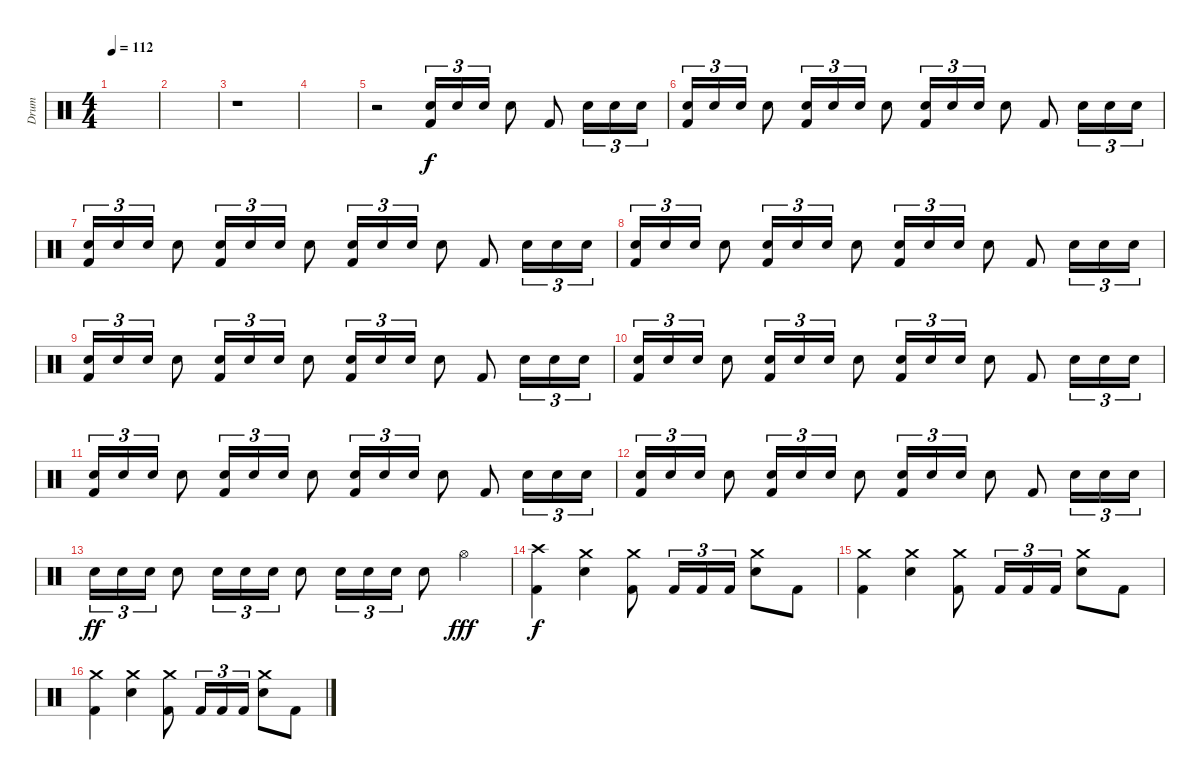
\track ("Drum" "Drum") {instrument percussion}
\staff {score}
\articulation defaults
\ts (4 4)
\tempo 112
\clef neutral
\ks c
|
|
r.1{volume 4} |
|
r.2{volume 9} ("Electric Snare (hit)" "Kick (hit) 2").16{tu (3 2)} "Electric Snare (hit)".16{tu (3 2)} "Electric Snare (hit)".16{tu (3 2)} "Electric Snare (hit)".8 "Kick (hit) 2".8 "Electric Snare (hit)".16{tu (3 2)} "Electric Snare (hit)".16{tu (3 2)} "Electric Snare (hit)".16{tu (3 2)} |
("Electric Snare (hit)" "Kick (hit) 2").16{tu (3 2) volume 9} "Electric Snare (hit)".16{tu (3 2)} "Electric Snare (hit)".16{tu (3 2)} "Electric Snare (hit)".8 ("Electric Snare (hit)" "Kick (hit) 2").16{tu (3 2)} "Electric Snare (hit)".16{tu (3 2)} "Electric Snare (hit)".16{tu (3 2)} "Electric Snare (hit)".8 ("Electric Snare (hit)" "Kick (hit) 2").16{tu (3 2)} "Electric Snare (hit)".16{tu (3 2)} "Electric Snare (hit)".16{tu (3 2)} "Electric Snare (hit)".8 "Kick (hit) 2".8 "Electric Snare (hit)".16{tu (3 2)} "Electric Snare (hit)".16{tu (3 2)} "Electric Snare (hit)".16{tu (3 2)} |
("Electric Snare (hit)" "Kick (hit) 2").16{tu (3 2)} "Electric Snare (hit)".16{tu (3 2)} "Electric Snare (hit)".16{tu (3 2)} "Electric Snare (hit)".8 ("Electric Snare (hit)" "Kick (hit) 2").16{tu (3 2)} "Electric Snare (hit)".16{tu (3 2)} "Electric Snare (hit)".16{tu (3 2)} "Electric Snare (hit)".8 ("Electric Snare (hit)" "Kick (hit) 2").16{tu (3 2)} "Electric Snare (hit)".16{tu (3 2)} "Electric Snare (hit)".16{tu (3 2)} "Electric Snare (hit)".8 "Kick (hit) 2".8 "Electric Snare (hit)".16{tu (3 2)} "Electric Snare (hit)".16{tu (3 2)} "Electric Snare (hit)".16{tu (3 2)} |
("Electric Snare (hit)" "Kick (hit) 2").16{tu (3 2) volume 11} "Electric Snare (hit)".16{tu (3 2)} "Electric Snare (hit)".16{tu (3 2)} "Electric Snare (hit)".8 ("Electric Snare (hit)" "Kick (hit) 2").16{tu (3 2)} "Electric Snare (hit)".16{tu (3 2)} "Electric Snare (hit)".16{tu (3 2)} "Electric Snare (hit)".8 ("Electric Snare (hit)" "Kick (hit) 2").16{tu (3 2)} "Electric Snare (hit)".16{tu (3 2)} "Electric Snare (hit)".16{tu (3 2)} "Electric Snare (hit)".8 "Kick (hit) 2".8 "Electric Snare (hit)".16{tu (3 2)} "Electric Snare (hit)".16{tu (3 2)} "Electric Snare (hit)".16{tu (3 2)} |
("Electric Snare (hit)" "Kick (hit) 2").16{tu (3 2)} "Electric Snare (hit)".16{tu (3 2)} "Electric Snare (hit)".16{tu (3 2)} "Electric Snare (hit)".8 ("Electric Snare (hit)" "Kick (hit) 2").16{tu (3 2)} "Electric Snare (hit)".16{tu (3 2)} "Electric Snare (hit)".16{tu (3 2)} "Electric Snare (hit)".8 ("Electric Snare (hit)" "Kick (hit) 2").16{tu (3 2)} "Electric Snare (hit)".16{tu (3 2)} "Electric Snare (hit)".16{tu (3 2)} "Electric Snare (hit)".8 "Kick (hit) 2".8 "Electric Snare (hit)".16{tu (3 2)} "Electric Snare (hit)".16{tu (3 2)} "Electric Snare (hit)".16{tu (3 2)} |
("Electric Snare (hit)" "Kick (hit) 2").16{tu (3 2) volume 13} "Electric Snare (hit)".16{tu (3 2)} "Electric Snare (hit)".16{tu (3 2)} "Electric Snare (hit)".8 ("Electric Snare (hit)" "Kick (hit) 2").16{tu (3 2)} "Electric Snare (hit)".16{tu (3 2)} "Electric Snare (hit)".16{tu (3 2)} "Electric Snare (hit)".8 ("Electric Snare (hit)" "Kick (hit) 2").16{tu (3 2)} "Electric Snare (hit)".16{tu (3 2)} "Electric Snare (hit)".16{tu (3 2)} "Electric Snare (hit)".8 "Kick (hit) 2".8 "Electric Snare (hit)".16{tu (3 2)} "Electric Snare (hit)".16{tu (3 2)} "Electric Snare (hit)".16{tu (3 2)} |
("Electric Snare (hit)" "Kick (hit) 2").16{tu (3 2)} "Electric Snare (hit)".16{tu (3 2)} "Electric Snare (hit)".16{tu (3 2)} "Electric Snare (hit)".8 ("Electric Snare (hit)" "Kick (hit) 2").16{tu (3 2)} "Electric Snare (hit)".16{tu (3 2)} "Electric Snare (hit)".16{tu (3 2)} "Electric Snare (hit)".8 ("Electric Snare (hit)" "Kick (hit) 2").16{tu (3 2)} "Electric Snare (hit)".16{tu (3 2)} "Electric Snare (hit)".16{tu (3 2)} "Electric Snare (hit)".8 "Kick (hit) 2".8 "Electric Snare (hit)".16{tu (3 2)} "Electric Snare (hit)".16{tu (3 2)} "Electric Snare (hit)".16{tu (3 2)} |
("Electric Snare (hit)" "Kick (hit) 2").16{tu (3 2) volume 14} "Electric Snare (hit)".16{tu (3 2)} "Electric Snare (hit)".16{tu (3 2)} "Electric Snare (hit)".8 ("Electric Snare (hit)" "Kick (hit) 2").16{tu (3 2)} "Electric Snare (hit)".16{tu (3 2)} "Electric Snare (hit)".16{tu (3 2)} "Electric Snare (hit)".8 ("Electric Snare (hit)" "Kick (hit) 2").16{tu (3 2)} "Electric Snare (hit)".16{tu (3 2)} "Electric Snare (hit)".16{tu (3 2)} "Electric Snare (hit)".8 "Kick (hit) 2".8 "Electric Snare (hit)".16{tu (3 2)} "Electric Snare (hit)".16{tu (3 2)} "Electric Snare (hit)".16{tu (3 2)} |
"Electric Snare (hit)".16{tu (3 2) dy ff volume 15} "Electric Snare (hit)".16{tu (3 2)} "Electric Snare (hit)".16{tu (3 2)} "Electric Snare (hit)".8 "Electric Snare (hit)".16{tu (3 2)} "Electric Snare (hit)".16{tu (3 2)} "Electric Snare (hit)".16{tu (3 2)} "Electric Snare (hit)".8 "Electric Snare (hit)".16{tu (3 2)} "Electric Snare (hit)".16{tu (3 2)} "Electric Snare (hit)".16{tu (3 2)} "Electric Snare (hit)".8 "Hi-Hat (open)".4{dy fff} |
("Crash high (hit)" "Kick (hit) 2").4{dy f volume 14} ("Crash medium (hit)" "Electric Snare (hit)").4 ("Crash medium (hit)" "Kick (hit) 2").8 "Kick (hit) 2".16{tu (3 2)} "Kick (hit) 2".16{tu (3 2)} "Kick (hit) 2".16{tu (3 2)} ("Crash medium (hit)" "Electric Snare (hit)").8 "Kick (hit) 2".8 |
("Crash medium (hit)" "Kick (hit) 2").4 ("Crash medium (hit)" "Electric Snare (hit)").4 ("Crash medium (hit)" "Kick (hit) 2").8 "Kick (hit) 2".16{tu (3 2)} "Kick (hit) 2".16{tu (3 2)} "Kick (hit) 2".16{tu (3 2)} ("Crash medium (hit)" "Electric Snare (hit)").8 "Kick (hit) 2".8 |
("Crash medium (hit)" "Kick (hit) 2").4 ("Crash medium (hit)" "Electric Snare (hit)").4 ("Crash medium (hit)" "Kick (hit) 2").8 "Kick (hit) 2".16{tu (3 2)} "Kick (hit) 2".16{tu (3 2)} "Kick (hit) 2".16{tu (3 2)} ("Crash medium (hit)" "Electric Snare (hit)").8 "Kick (hit) 2".8
